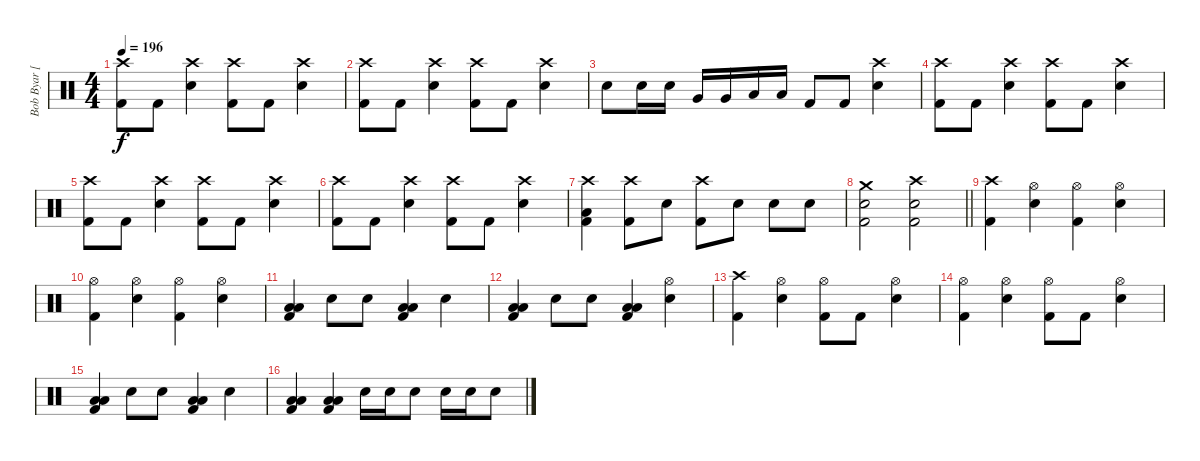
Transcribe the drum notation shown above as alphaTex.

\track ("Bob Byar [Drums]" "Bob Byar [") {instrument percussion}
\staff {score}
\articulation defaults
\ts (4 4)
\tempo 196
\clef neutral
\ks c
("Crash high (hit)" "Kick (hit) 2").8{dy f} "Kick (hit) 2".8 ("Crash high (hit)" "Electric Snare (hit)").4 ("Crash high (hit)" "Kick (hit) 2").8 "Kick (hit) 2".8 ("Crash high (hit)" "Electric Snare (hit)").4 |
("Crash high (hit)" "Kick (hit) 2").8 "Kick (hit) 2".8 ("Crash high (hit)" "Electric Snare (hit)").4 ("Crash high (hit)" "Kick (hit) 2").8 "Kick (hit) 2".8 ("Crash high (hit)" "Electric Snare (hit)").4 |
"Electric Snare (hit)".8 "Electric Snare (hit)".16 "Electric Snare (hit)".16 "Very Low Tom (hit)".16 "Very Low Tom (hit)".16 "Low Floor Tom (hit)".16 "Low Floor Tom (hit)".16 "Kick (hit) 2".8 "Kick (hit) 2".8 ("Crash high (hit)" "Electric Snare (hit)").4 |
("Crash high (hit)" "Kick (hit) 2").8 "Kick (hit) 2".8 ("Crash high (hit)" "Electric Snare (hit)").4 ("Crash high (hit)" "Kick (hit) 2").8 "Kick (hit) 2".8 ("Crash high (hit)" "Electric Snare (hit)").4 |
("Crash high (hit)" "Kick (hit) 2").8 "Kick (hit) 2".8 ("Crash high (hit)" "Electric Snare (hit)").4 ("Crash high (hit)" "Kick (hit) 2").8 "Kick (hit) 2".8 ("Crash high (hit)" "Electric Snare (hit)").4 |
("Crash high (hit)" "Kick (hit) 2").8 "Kick (hit) 2".8 ("Crash high (hit)" "Electric Snare (hit)").4 ("Crash high (hit)" "Kick (hit) 2").8 "Kick (hit) 2".8 ("Crash high (hit)" "Electric Snare (hit)").4 |
("Crash high (hit)" "Low Floor Tom (hit)" "Kick (hit) 2").4 ("Crash high (hit)" "Kick (hit) 2").8 "Electric Snare (hit)".8 ("Crash high (hit)" "Kick (hit) 2").8 "Electric Snare (hit)".8 "Electric Snare (hit)".8 "Electric Snare (hit)".8 |
\barLineRight lightlight
("Crash medium (hit)" "Electric Snare (hit)" "Kick (hit) 2").2 ("Crash high (hit)" "Electric Snare (hit)" "Kick (hit) 2").2 |
("Crash high (hit)" "Kick (hit) 2").4 ("Hi-Hat (open)" "Electric Snare (hit)").4 ("Hi-Hat (open)" "Kick (hit) 2").4 ("Hi-Hat (open)" "Electric Snare (hit)").4 |
("Hi-Hat (open)" "Kick (hit) 2").4 ("Hi-Hat (open)" "Electric Snare (hit)").4 ("Hi-Hat (open)" "Kick (hit) 2").4 ("Hi-Hat (open)" "Electric Snare (hit)").4 |
("Low Floor Tom (hit)" "Low Floor Tom (hit)" "Kick (hit) 2").4 "Electric Snare (hit)".8 "Electric Snare (hit)".8 ("Low Floor Tom (hit)" "Low Floor Tom (hit)" "Kick (hit) 2").4 "Electric Snare (hit)".4 |
("Low Floor Tom (hit)" "Low Floor Tom (hit)" "Kick (hit) 2").4 "Electric Snare (hit)".8 "Electric Snare (hit)".8 ("Low Floor Tom (hit)" "Low Floor Tom (hit)" "Kick (hit) 2").4 ("Hi-Hat (open)" "Electric Snare (hit)").4 |
("Crash high (hit)" "Kick (hit) 2").4 ("Hi-Hat (open)" "Electric Snare (hit)").4 ("Hi-Hat (open)" "Kick (hit) 2").8 "Kick (hit) 2".8 ("Hi-Hat (open)" "Electric Snare (hit)").4 |
("Hi-Hat (open)" "Kick (hit) 2").4 ("Hi-Hat (open)" "Electric Snare (hit)").4 ("Hi-Hat (open)" "Kick (hit) 2").8 "Kick (hit) 2".8 ("Hi-Hat (open)" "Electric Snare (hit)").4 |
("Low Floor Tom (hit)" "Low Floor Tom (hit)" "Kick (hit) 2").4 "Electric Snare (hit)".8 "Electric Snare (hit)".8 ("Low Floor Tom (hit)" "Low Floor Tom (hit)" "Kick (hit) 2").4 "Electric Snare (hit)".4 |
("Low Floor Tom (hit)" "Low Floor Tom (hit)" "Kick (hit) 2").4 ("Low Floor Tom (hit)" "Low Floor Tom (hit)" "Kick (hit) 2").4 "Electric Snare (hit)".16 "Electric Snare (hit)".16 "Electric Snare (hit)".8 "Electric Snare (hit)".16 "Electric Snare (hit)".16 "Electric Snare (hit)".8
